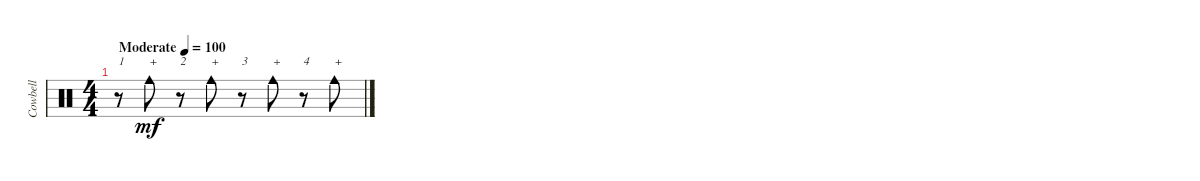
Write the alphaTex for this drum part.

\track ("Cowbell" "Cowbell") {instrument percussion}
\staff {score}
\articulation defaults
\ts (4 4)
\tempo (100 "Moderate")
\clef neutral
\ks c
r.8{txt "1" dy mf} "Cowbell medium (hit)".8{txt "+"} r.8{txt "2"} "Cowbell medium (hit)".8{txt "+"} r.8{txt "3"} "Cowbell medium (hit)".8{txt "+"} r.8{txt "4"} "Cowbell medium (hit)".8{txt "+"}
